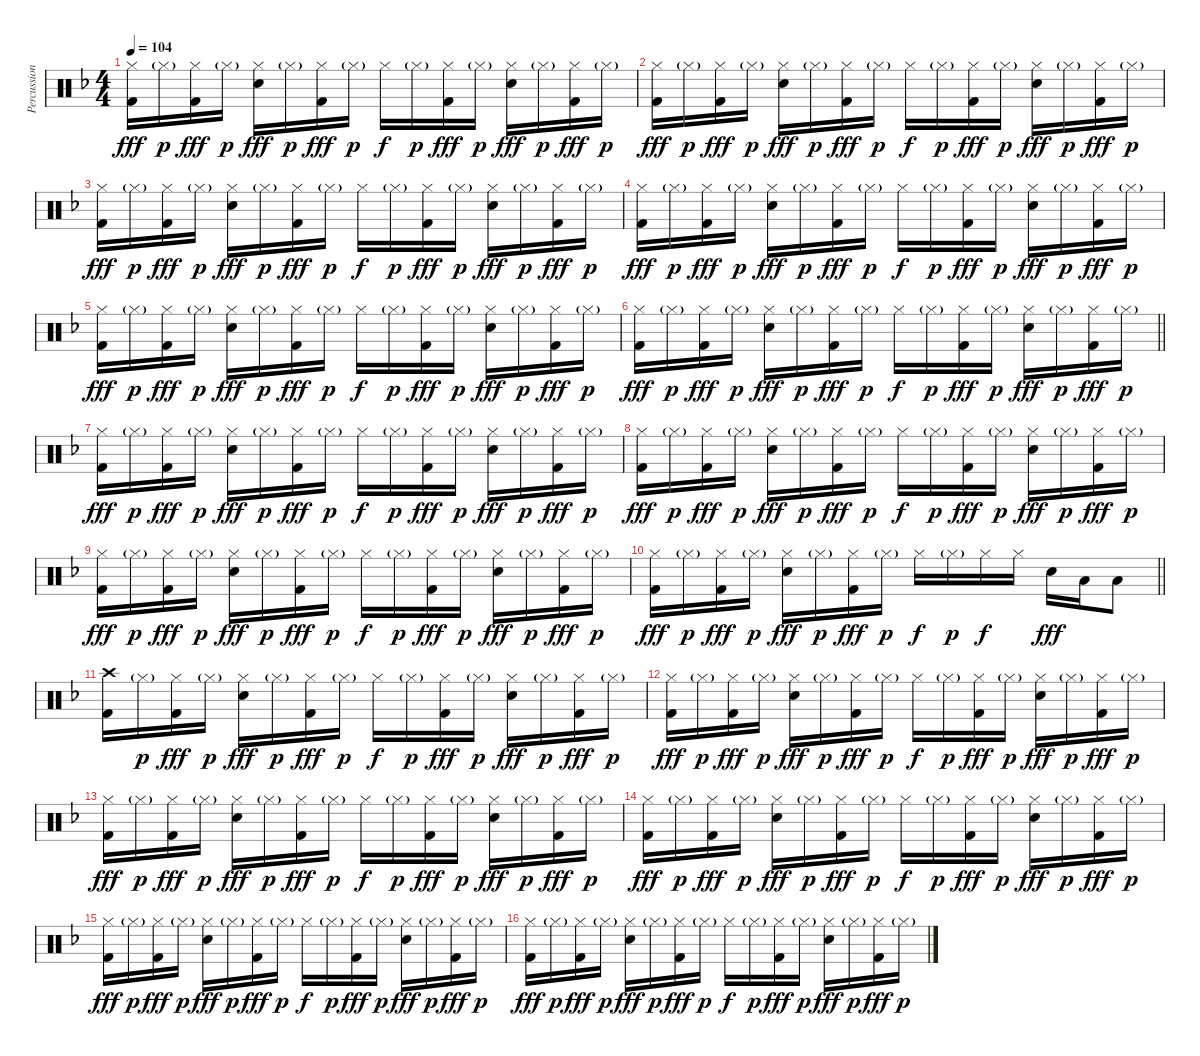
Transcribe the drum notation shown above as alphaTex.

\track ("Percussion" "Percussion") {instrument percussion}
\staff {score}
\articulation defaults
\ts (4 4)
\tempo 104
\clef neutral
\ks dminor
("Hi-Hat (closed)" "Kick (hit) 2").16{dy fff} "Hi-Hat (closed)"{g}.16{dy p} ("Hi-Hat (closed)" "Kick (hit) 2").16{dy fff} "Hi-Hat (closed)"{g}.16{dy p} ("Hi-Hat (closed)" "Snare (hit) 2").16{dy fff} "Hi-Hat (closed)"{g}.16{dy p} ("Hi-Hat (closed)" "Kick (hit) 2").16{dy fff} "Hi-Hat (closed)"{g}.16{dy p} "Hi-Hat (closed)".16{dy f} "Hi-Hat (closed)"{g}.16{dy p} ("Hi-Hat (closed)" "Kick (hit) 2").16{dy fff} "Hi-Hat (closed)"{g}.16{dy p} ("Hi-Hat (closed)" "Snare (hit) 2").16{dy fff} "Hi-Hat (closed)"{g}.16{dy p} ("Hi-Hat (closed)" "Kick (hit) 2").16{dy fff} "Hi-Hat (closed)"{g}.16{dy p} |
("Hi-Hat (closed)" "Kick (hit) 2").16{dy fff} "Hi-Hat (closed)"{g}.16{dy p} ("Hi-Hat (closed)" "Kick (hit) 2").16{dy fff} "Hi-Hat (closed)"{g}.16{dy p} ("Hi-Hat (closed)" "Snare (hit) 2").16{dy fff} "Hi-Hat (closed)"{g}.16{dy p} ("Hi-Hat (closed)" "Kick (hit) 2").16{dy fff} "Hi-Hat (closed)"{g}.16{dy p} "Hi-Hat (closed)".16{dy f} "Hi-Hat (closed)"{g}.16{dy p} ("Hi-Hat (closed)" "Kick (hit) 2").16{dy fff} "Hi-Hat (closed)"{g}.16{dy p} ("Hi-Hat (closed)" "Snare (hit) 2").16{dy fff} "Hi-Hat (closed)"{g}.16{dy p} ("Hi-Hat (closed)" "Kick (hit) 2").16{dy fff} "Hi-Hat (closed)"{g}.16{dy p} |
("Hi-Hat (closed)" "Kick (hit) 2").16{dy fff} "Hi-Hat (closed)"{g}.16{dy p} ("Hi-Hat (closed)" "Kick (hit) 2").16{dy fff} "Hi-Hat (closed)"{g}.16{dy p} ("Hi-Hat (closed)" "Snare (hit) 2").16{dy fff} "Hi-Hat (closed)"{g}.16{dy p} ("Hi-Hat (closed)" "Kick (hit) 2").16{dy fff} "Hi-Hat (closed)"{g}.16{dy p} "Hi-Hat (closed)".16{dy f} "Hi-Hat (closed)"{g}.16{dy p} ("Hi-Hat (closed)" "Kick (hit) 2").16{dy fff} "Hi-Hat (closed)"{g}.16{dy p} ("Hi-Hat (closed)" "Snare (hit) 2").16{dy fff} "Hi-Hat (closed)"{g}.16{dy p} ("Hi-Hat (closed)" "Kick (hit) 2").16{dy fff} "Hi-Hat (closed)"{g}.16{dy p} |
("Hi-Hat (closed)" "Kick (hit) 2").16{dy fff} "Hi-Hat (closed)"{g}.16{dy p} ("Hi-Hat (closed)" "Kick (hit) 2").16{dy fff} "Hi-Hat (closed)"{g}.16{dy p} ("Hi-Hat (closed)" "Snare (hit) 2").16{dy fff} "Hi-Hat (closed)"{g}.16{dy p} ("Hi-Hat (closed)" "Kick (hit) 2").16{dy fff} "Hi-Hat (closed)"{g}.16{dy p} "Hi-Hat (closed)".16{dy f} "Hi-Hat (closed)"{g}.16{dy p} ("Hi-Hat (closed)" "Kick (hit) 2").16{dy fff} "Hi-Hat (closed)"{g}.16{dy p} ("Hi-Hat (closed)" "Snare (hit) 2").16{dy fff} "Hi-Hat (closed)"{g}.16{dy p} ("Hi-Hat (closed)" "Kick (hit) 2").16{dy fff} "Hi-Hat (closed)"{g}.16{dy p} |
("Hi-Hat (closed)" "Kick (hit) 2").16{dy fff} "Hi-Hat (closed)"{g}.16{dy p} ("Hi-Hat (closed)" "Kick (hit) 2").16{dy fff} "Hi-Hat (closed)"{g}.16{dy p} ("Hi-Hat (closed)" "Snare (hit) 2").16{dy fff} "Hi-Hat (closed)"{g}.16{dy p} ("Hi-Hat (closed)" "Kick (hit) 2").16{dy fff} "Hi-Hat (closed)"{g}.16{dy p} "Hi-Hat (closed)".16{dy f} "Hi-Hat (closed)"{g}.16{dy p} ("Hi-Hat (closed)" "Kick (hit) 2").16{dy fff} "Hi-Hat (closed)"{g}.16{dy p} ("Hi-Hat (closed)" "Snare (hit) 2").16{dy fff} "Hi-Hat (closed)"{g}.16{dy p} ("Hi-Hat (closed)" "Kick (hit) 2").16{dy fff} "Hi-Hat (closed)"{g}.16{dy p} |
\barLineRight lightlight
("Hi-Hat (closed)" "Kick (hit) 2").16{dy fff} "Hi-Hat (closed)"{g}.16{dy p} ("Hi-Hat (closed)" "Kick (hit) 2").16{dy fff} "Hi-Hat (closed)"{g}.16{dy p} ("Hi-Hat (closed)" "Snare (hit) 2").16{dy fff} "Hi-Hat (closed)"{g}.16{dy p} ("Hi-Hat (closed)" "Kick (hit) 2").16{dy fff} "Hi-Hat (closed)"{g}.16{dy p} "Hi-Hat (closed)".16{dy f} "Hi-Hat (closed)"{g}.16{dy p} ("Hi-Hat (closed)" "Kick (hit) 2").16{dy fff} "Hi-Hat (closed)"{g}.16{dy p} ("Hi-Hat (closed)" "Snare (hit) 2").16{dy fff} "Hi-Hat (closed)"{g}.16{dy p} ("Hi-Hat (closed)" "Kick (hit) 2").16{dy fff} "Hi-Hat (closed)"{g}.16{dy p} |
("Hi-Hat (closed)" "Kick (hit) 2").16{dy fff} "Hi-Hat (closed)"{g}.16{dy p} ("Hi-Hat (closed)" "Kick (hit) 2").16{dy fff} "Hi-Hat (closed)"{g}.16{dy p} ("Hi-Hat (closed)" "Snare (hit) 2").16{dy fff} "Hi-Hat (closed)"{g}.16{dy p} ("Hi-Hat (closed)" "Kick (hit) 2").16{dy fff} "Hi-Hat (closed)"{g}.16{dy p} "Hi-Hat (closed)".16{dy f} "Hi-Hat (closed)"{g}.16{dy p} ("Hi-Hat (closed)" "Kick (hit) 2").16{dy fff} "Hi-Hat (closed)"{g}.16{dy p} ("Hi-Hat (closed)" "Snare (hit) 2").16{dy fff} "Hi-Hat (closed)"{g}.16{dy p} ("Hi-Hat (closed)" "Kick (hit) 2").16{dy fff} "Hi-Hat (closed)"{g}.16{dy p} |
("Hi-Hat (closed)" "Kick (hit) 2").16{dy fff} "Hi-Hat (closed)"{g}.16{dy p} ("Hi-Hat (closed)" "Kick (hit) 2").16{dy fff} "Hi-Hat (closed)"{g}.16{dy p} ("Hi-Hat (closed)" "Snare (hit) 2").16{dy fff} "Hi-Hat (closed)"{g}.16{dy p} ("Hi-Hat (closed)" "Kick (hit) 2").16{dy fff} "Hi-Hat (closed)"{g}.16{dy p} "Hi-Hat (closed)".16{dy f} "Hi-Hat (closed)"{g}.16{dy p} ("Hi-Hat (closed)" "Kick (hit) 2").16{dy fff} "Hi-Hat (closed)"{g}.16{dy p} ("Hi-Hat (closed)" "Snare (hit) 2").16{dy fff} "Hi-Hat (closed)"{g}.16{dy p} ("Hi-Hat (closed)" "Kick (hit) 2").16{dy fff} "Hi-Hat (closed)"{g}.16{dy p} |
("Hi-Hat (closed)" "Kick (hit) 2").16{dy fff} "Hi-Hat (closed)"{g}.16{dy p} ("Hi-Hat (closed)" "Kick (hit) 2").16{dy fff} "Hi-Hat (closed)"{g}.16{dy p} ("Hi-Hat (closed)" "Snare (hit) 2").16{dy fff} "Hi-Hat (closed)"{g}.16{dy p} ("Hi-Hat (closed)" "Kick (hit) 2").16{dy fff} "Hi-Hat (closed)"{g}.16{dy p} "Hi-Hat (closed)".16{dy f} "Hi-Hat (closed)"{g}.16{dy p} ("Hi-Hat (closed)" "Kick (hit) 2").16{dy fff} "Hi-Hat (closed)"{g}.16{dy p} ("Hi-Hat (closed)" "Snare (hit) 2").16{dy fff} "Hi-Hat (closed)"{g}.16{dy p} ("Hi-Hat (closed)" "Kick (hit) 2").16{dy fff} "Hi-Hat (closed)"{g}.16{dy p} |
\barLineRight lightlight
("Hi-Hat (closed)" "Kick (hit) 2").16{dy fff} "Hi-Hat (closed)"{g}.16{dy p} ("Hi-Hat (closed)" "Kick (hit) 2").16{dy fff} "Hi-Hat (closed)"{g}.16{dy p} ("Hi-Hat (closed)" "Snare (hit) 2").16{dy fff} "Hi-Hat (closed)"{g}.16{dy p} ("Hi-Hat (closed)" "Kick (hit) 2").16{dy fff} "Hi-Hat (closed)"{g}.16{dy p} "Hi-Hat (closed)".16{dy f} "Hi-Hat (closed)"{g}.16{dy p} "Hi-Hat (closed)".16{dy f} "Hi-Hat (closed)".16 "Snare (hit) 2".16{dy fff} "Low Tom (hit)".16 "Low Floor Tom (hit)".8 |
("Crash high (hit)" "Kick (hit) 2").16 "Hi-Hat (closed)"{g}.16{dy p} ("Hi-Hat (closed)" "Kick (hit) 2").16{dy fff} "Hi-Hat (closed)"{g}.16{dy p} ("Hi-Hat (closed)" "Snare (hit) 2").16{dy fff} "Hi-Hat (closed)"{g}.16{dy p} ("Hi-Hat (closed)" "Kick (hit) 2").16{dy fff} "Hi-Hat (closed)"{g}.16{dy p} "Hi-Hat (closed)".16{dy f} "Hi-Hat (closed)"{g}.16{dy p} ("Hi-Hat (closed)" "Kick (hit) 2").16{dy fff} "Hi-Hat (closed)"{g}.16{dy p} ("Hi-Hat (closed)" "Snare (hit) 2").16{dy fff} "Hi-Hat (closed)"{g}.16{dy p} ("Hi-Hat (closed)" "Kick (hit) 2").16{dy fff} "Hi-Hat (closed)"{g}.16{dy p} |
("Hi-Hat (closed)" "Kick (hit) 2").16{dy fff} "Hi-Hat (closed)"{g}.16{dy p} ("Hi-Hat (closed)" "Kick (hit) 2").16{dy fff} "Hi-Hat (closed)"{g}.16{dy p} ("Hi-Hat (closed)" "Snare (hit) 2").16{dy fff} "Hi-Hat (closed)"{g}.16{dy p} ("Hi-Hat (closed)" "Kick (hit) 2").16{dy fff} "Hi-Hat (closed)"{g}.16{dy p} "Hi-Hat (closed)".16{dy f} "Hi-Hat (closed)"{g}.16{dy p} ("Hi-Hat (closed)" "Kick (hit) 2").16{dy fff} "Hi-Hat (closed)"{g}.16{dy p} ("Hi-Hat (closed)" "Snare (hit) 2").16{dy fff} "Hi-Hat (closed)"{g}.16{dy p} ("Hi-Hat (closed)" "Kick (hit) 2").16{dy fff} "Hi-Hat (closed)"{g}.16{dy p} |
("Hi-Hat (closed)" "Kick (hit) 2").16{dy fff} "Hi-Hat (closed)"{g}.16{dy p} ("Hi-Hat (closed)" "Kick (hit) 2").16{dy fff} "Hi-Hat (closed)"{g}.16{dy p} ("Hi-Hat (closed)" "Snare (hit) 2").16{dy fff} "Hi-Hat (closed)"{g}.16{dy p} ("Hi-Hat (closed)" "Kick (hit) 2").16{dy fff} "Hi-Hat (closed)"{g}.16{dy p} "Hi-Hat (closed)".16{dy f} "Hi-Hat (closed)"{g}.16{dy p} ("Hi-Hat (closed)" "Kick (hit) 2").16{dy fff} "Hi-Hat (closed)"{g}.16{dy p} ("Hi-Hat (closed)" "Snare (hit) 2").16{dy fff} "Hi-Hat (closed)"{g}.16{dy p} ("Hi-Hat (closed)" "Kick (hit) 2").16{dy fff} "Hi-Hat (closed)"{g}.16{dy p} |
("Hi-Hat (closed)" "Kick (hit) 2").16{dy fff} "Hi-Hat (closed)"{g}.16{dy p} ("Hi-Hat (closed)" "Kick (hit) 2").16{dy fff} "Hi-Hat (closed)"{g}.16{dy p} ("Hi-Hat (closed)" "Snare (hit) 2").16{dy fff} "Hi-Hat (closed)"{g}.16{dy p} ("Hi-Hat (closed)" "Kick (hit) 2").16{dy fff} "Hi-Hat (closed)"{g}.16{dy p} "Hi-Hat (closed)".16{dy f} "Hi-Hat (closed)"{g}.16{dy p} ("Hi-Hat (closed)" "Kick (hit) 2").16{dy fff} "Hi-Hat (closed)"{g}.16{dy p} ("Hi-Hat (closed)" "Snare (hit) 2").16{dy fff} "Hi-Hat (closed)"{g}.16{dy p} ("Hi-Hat (closed)" "Kick (hit) 2").16{dy fff} "Hi-Hat (closed)"{g}.16{dy p} |
("Hi-Hat (closed)" "Kick (hit) 2").16{dy fff} "Hi-Hat (closed)"{g}.16{dy p} ("Hi-Hat (closed)" "Kick (hit) 2").16{dy fff} "Hi-Hat (closed)"{g}.16{dy p} ("Hi-Hat (closed)" "Snare (hit) 2").16{dy fff} "Hi-Hat (closed)"{g}.16{dy p} ("Hi-Hat (closed)" "Kick (hit) 2").16{dy fff} "Hi-Hat (closed)"{g}.16{dy p} "Hi-Hat (closed)".16{dy f} "Hi-Hat (closed)"{g}.16{dy p} ("Hi-Hat (closed)" "Kick (hit) 2").16{dy fff} "Hi-Hat (closed)"{g}.16{dy p} ("Hi-Hat (closed)" "Snare (hit) 2").16{dy fff} "Hi-Hat (closed)"{g}.16{dy p} ("Hi-Hat (closed)" "Kick (hit) 2").16{dy fff} "Hi-Hat (closed)"{g}.16{dy p} |
("Hi-Hat (closed)" "Kick (hit) 2").16{dy fff} "Hi-Hat (closed)"{g}.16{dy p} ("Hi-Hat (closed)" "Kick (hit) 2").16{dy fff} "Hi-Hat (closed)"{g}.16{dy p} ("Hi-Hat (closed)" "Snare (hit) 2").16{dy fff} "Hi-Hat (closed)"{g}.16{dy p} ("Hi-Hat (closed)" "Kick (hit) 2").16{dy fff} "Hi-Hat (closed)"{g}.16{dy p} "Hi-Hat (closed)".16{dy f} "Hi-Hat (closed)"{g}.16{dy p} ("Hi-Hat (closed)" "Kick (hit) 2").16{dy fff} "Hi-Hat (closed)"{g}.16{dy p} ("Hi-Hat (closed)" "Snare (hit) 2").16{dy fff} "Hi-Hat (closed)"{g}.16{dy p} ("Hi-Hat (closed)" "Kick (hit) 2").16{dy fff} "Hi-Hat (closed)"{g}.16{dy p}
